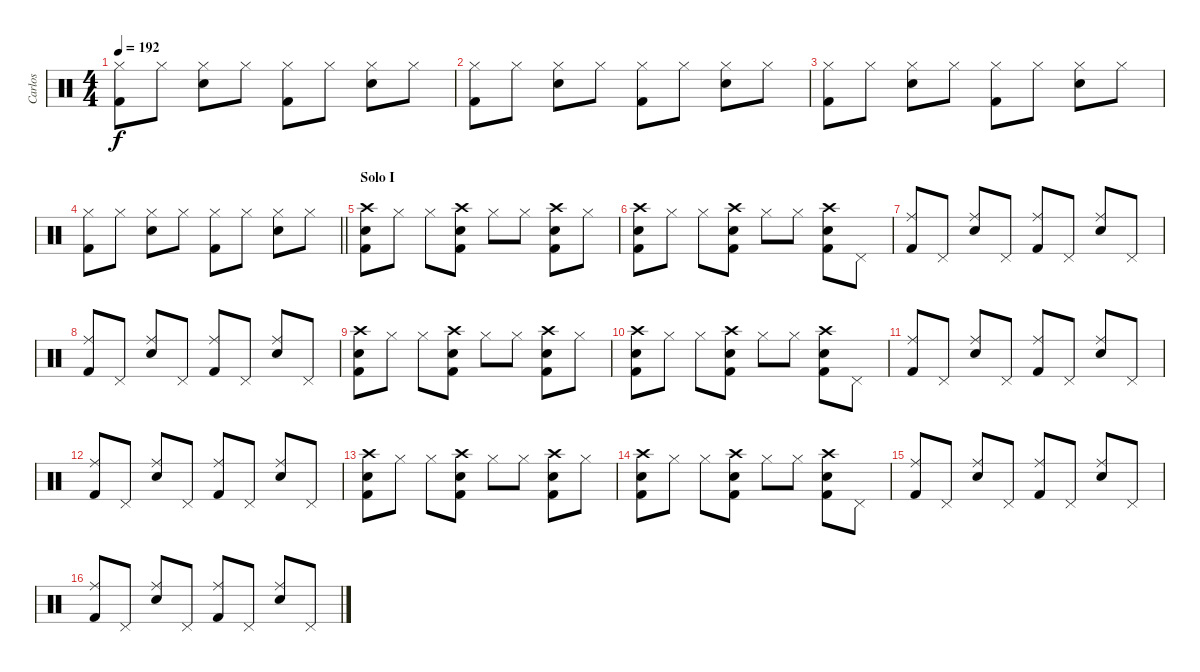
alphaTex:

\track ("Carlos" "Carlos") {instrument percussion}
\staff {score}
\articulation defaults
\ts (4 4)
\tempo 192
\clef neutral
\ks c
("Hi-Hat (closed)" "Kick (hit) 2").8{dy f} "Hi-Hat (closed)".8 ("Hi-Hat (closed)" "Snare (hit) 2").8 "Hi-Hat (closed)".8 ("Hi-Hat (closed)" "Kick (hit) 2").8 "Hi-Hat (closed)".8 ("Hi-Hat (closed)" "Snare (hit) 2").8 "Hi-Hat (closed)".8 |
("Hi-Hat (closed)" "Kick (hit) 2").8 "Hi-Hat (closed)".8 ("Hi-Hat (closed)" "Snare (hit) 2").8 "Hi-Hat (closed)".8 ("Hi-Hat (closed)" "Kick (hit) 2").8 "Hi-Hat (closed)".8 ("Hi-Hat (closed)" "Snare (hit) 2").8 "Hi-Hat (closed)".8 |
("Hi-Hat (closed)" "Kick (hit) 2").8 "Hi-Hat (closed)".8 ("Hi-Hat (closed)" "Snare (hit) 2").8 "Hi-Hat (closed)".8 ("Hi-Hat (closed)" "Kick (hit) 2").8 "Hi-Hat (closed)".8 ("Hi-Hat (closed)" "Snare (hit) 2").8 "Hi-Hat (closed)".8 |
\barLineRight lightlight
("Hi-Hat (closed)" "Kick (hit) 2").8 "Hi-Hat (closed)".8 ("Hi-Hat (closed)" "Snare (hit) 2").8 "Hi-Hat (closed)".8 ("Hi-Hat (closed)" "Kick (hit) 2").8 "Hi-Hat (closed)".8 ("Hi-Hat (closed)" "Snare (hit) 2").8 "Hi-Hat (closed)".8 |
\section ("" "Solo I")
("Crash high (hit)" "Kick (hit) 2" "Snare (hit) 2").8 "Hi-Hat (closed)".8 "Hi-Hat (closed)".8 ("Crash high (hit)" "Kick (hit) 2" "Snare (hit) 2").8 "Hi-Hat (closed)".8 "Hi-Hat (closed)".8 ("Crash high (hit)" "Kick (hit) 2" "Snare (hit) 2").8 "Hi-Hat (closed)".8 |
("Crash high (hit)" "Kick (hit) 2" "Snare (hit) 2").8 "Hi-Hat (closed)".8 "Hi-Hat (closed)".8 ("Crash high (hit)" "Kick (hit) 2" "Snare (hit) 2").8 "Hi-Hat (closed)".8 "Hi-Hat (closed)".8 ("Crash high (hit)" "Kick (hit) 2" "Snare (hit) 2").8 "Pedal Hi-Hat (hit)".8 |
("Ride (middle)" "Kick (hit) 2").8 "Pedal Hi-Hat (hit)".8 ("Ride (middle)" "Snare (hit) 2").8 "Pedal Hi-Hat (hit)".8 ("Ride (middle)" "Kick (hit) 2").8 "Pedal Hi-Hat (hit)".8 ("Ride (middle)" "Snare (hit) 2").8 "Pedal Hi-Hat (hit)".8 |
("Ride (middle)" "Kick (hit) 2").8 "Pedal Hi-Hat (hit)".8 ("Ride (middle)" "Snare (hit) 2").8 "Pedal Hi-Hat (hit)".8 ("Ride (middle)" "Kick (hit) 2").8 "Pedal Hi-Hat (hit)".8 ("Ride (middle)" "Snare (hit) 2").8 "Pedal Hi-Hat (hit)".8 |
("Crash high (hit)" "Kick (hit) 2" "Snare (hit) 2").8 "Hi-Hat (closed)".8 "Hi-Hat (closed)".8 ("Crash high (hit)" "Kick (hit) 2" "Snare (hit) 2").8 "Hi-Hat (closed)".8 "Hi-Hat (closed)".8 ("Crash high (hit)" "Kick (hit) 2" "Snare (hit) 2").8 "Hi-Hat (closed)".8 |
("Crash high (hit)" "Kick (hit) 2" "Snare (hit) 2").8 "Hi-Hat (closed)".8 "Hi-Hat (closed)".8 ("Crash high (hit)" "Kick (hit) 2" "Snare (hit) 2").8 "Hi-Hat (closed)".8 "Hi-Hat (closed)".8 ("Crash high (hit)" "Kick (hit) 2" "Snare (hit) 2").8 "Pedal Hi-Hat (hit)".8 |
("Ride (middle)" "Kick (hit) 2").8 "Pedal Hi-Hat (hit)".8 ("Ride (middle)" "Snare (hit) 2").8 "Pedal Hi-Hat (hit)".8 ("Ride (middle)" "Kick (hit) 2").8 "Pedal Hi-Hat (hit)".8 ("Ride (middle)" "Snare (hit) 2").8 "Pedal Hi-Hat (hit)".8 |
("Ride (middle)" "Kick (hit) 2").8 "Pedal Hi-Hat (hit)".8 ("Ride (middle)" "Snare (hit) 2").8 "Pedal Hi-Hat (hit)".8 ("Ride (middle)" "Kick (hit) 2").8 "Pedal Hi-Hat (hit)".8 ("Ride (middle)" "Snare (hit) 2").8 "Pedal Hi-Hat (hit)".8 |
("Crash high (hit)" "Kick (hit) 2" "Snare (hit) 2").8 "Hi-Hat (closed)".8 "Hi-Hat (closed)".8 ("Crash high (hit)" "Kick (hit) 2" "Snare (hit) 2").8 "Hi-Hat (closed)".8 "Hi-Hat (closed)".8 ("Crash high (hit)" "Kick (hit) 2" "Snare (hit) 2").8 "Hi-Hat (closed)".8 |
("Crash high (hit)" "Kick (hit) 2" "Snare (hit) 2").8 "Hi-Hat (closed)".8 "Hi-Hat (closed)".8 ("Crash high (hit)" "Kick (hit) 2" "Snare (hit) 2").8 "Hi-Hat (closed)".8 "Hi-Hat (closed)".8 ("Crash high (hit)" "Kick (hit) 2" "Snare (hit) 2").8 "Pedal Hi-Hat (hit)".8 |
("Ride (middle)" "Kick (hit) 2").8 "Pedal Hi-Hat (hit)".8 ("Ride (middle)" "Snare (hit) 2").8 "Pedal Hi-Hat (hit)".8 ("Ride (middle)" "Kick (hit) 2").8 "Pedal Hi-Hat (hit)".8 ("Ride (middle)" "Snare (hit) 2").8 "Pedal Hi-Hat (hit)".8 |
("Ride (middle)" "Kick (hit) 2").8 "Pedal Hi-Hat (hit)".8 ("Ride (middle)" "Snare (hit) 2").8 "Pedal Hi-Hat (hit)".8 ("Ride (middle)" "Kick (hit) 2").8 "Pedal Hi-Hat (hit)".8 ("Ride (middle)" "Snare (hit) 2").8 "Pedal Hi-Hat (hit)".8
